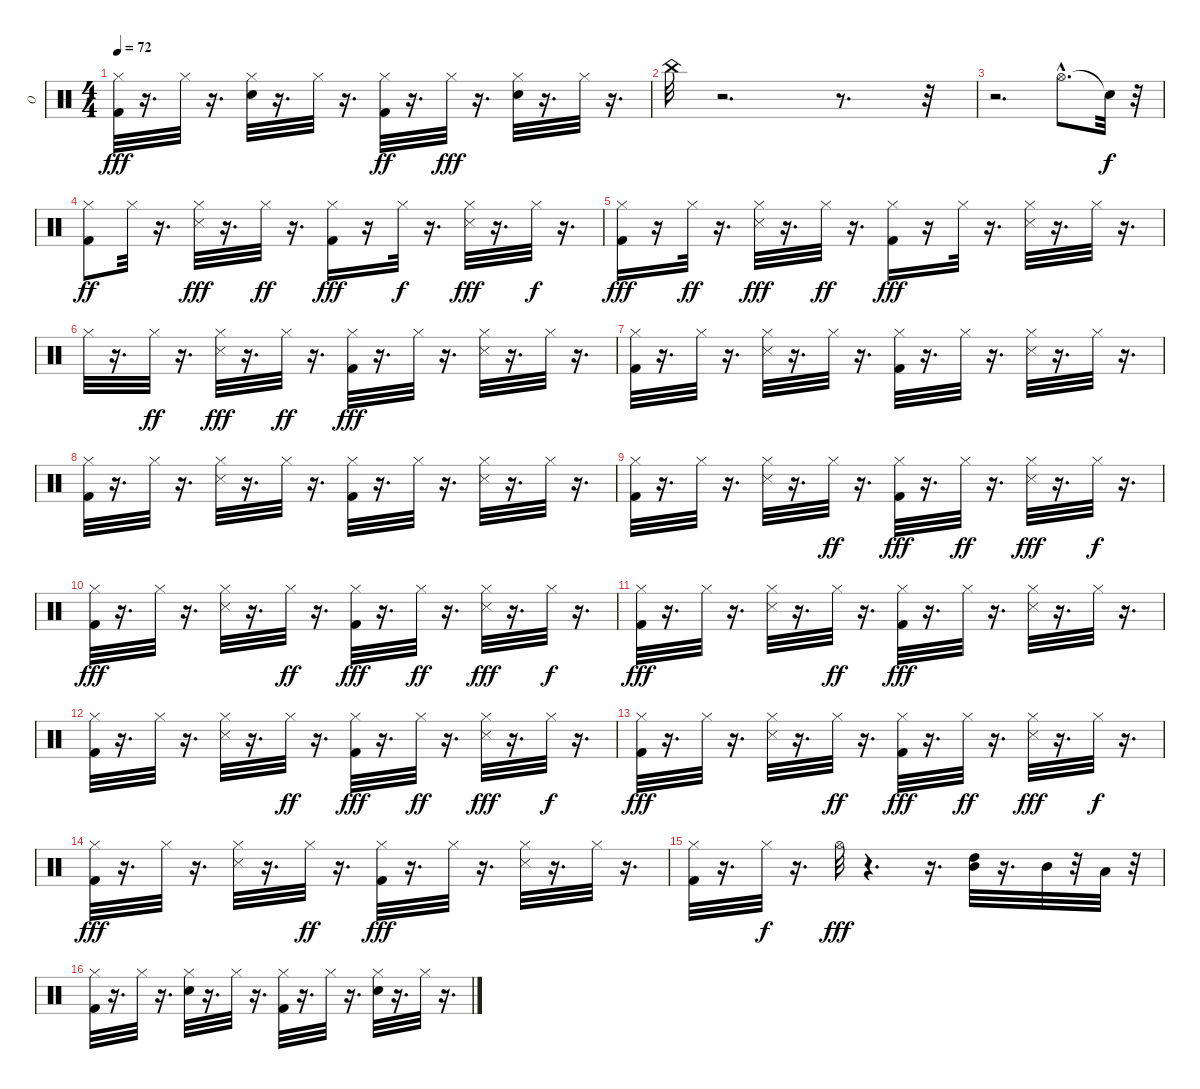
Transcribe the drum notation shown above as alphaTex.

\track ("O" "O") {instrument percussion}
\staff {score}
\articulation defaults
\ts (4 4)
\tempo 72
\clef neutral
\ks c
("Hi-Hat (closed)" "Kick (hit) 2").32{dy fff} r.16{d} "Hi-Hat (closed)".32 r.16{d} ("Hi-Hat (closed)" "Snare (hit) 2").32 r.16{d} "Hi-Hat (closed)".32 r.16{d} ("Hi-Hat (closed)" "Kick (hit) 2").32{dy ff} r.16{d} "Hi-Hat (closed)".32{dy fff} r.16{d} ("Hi-Hat (closed)" "Snare (hit) 2").32 r.16{d} "Hi-Hat (closed)".32 r.16{d} |
"China (hit)".32 r.2{d} r.8{d} r.32 |
r.2{d} "Hi-Hat (open)"{hac}.8{d} "Snare (hit)"{t}.32{dy f} r.32 |
("Kick (hit) 2" "Hi-Hat (closed)").8{dy ff} "Hi-Hat (closed)".32 r.16{d} ("Snare (side stick) 3" "Hi-Hat (closed)").32{dy fff} r.16{d} "Hi-Hat (closed)".32{dy ff} r.16{d} ("Kick (hit) 2" "Hi-Hat (closed)").16{dy fff} r.16 "Hi-Hat (closed)".32{dy f} r.16{d} ("Snare (side stick) 3" "Hi-Hat (closed)").32{dy fff} r.16{d} "Hi-Hat (closed)".32{dy f} r.16{d} |
("Kick (hit) 2" "Hi-Hat (closed)").16{dy fff} r.16 "Hi-Hat (closed)".32{dy ff} r.16{d} ("Snare (side stick) 3" "Hi-Hat (closed)").32{dy fff} r.16{d} "Hi-Hat (closed)".32{dy ff} r.16{d} ("Kick (hit) 2" "Hi-Hat (closed)").16{dy fff} r.16 "Hi-Hat (closed)".32 r.16{d} ("Snare (side stick) 3" "Hi-Hat (closed)").32 r.16{d} "Hi-Hat (closed)".32 r.16{d} |
"Hi-Hat (closed)".32 r.16{d} "Hi-Hat (closed)".32{dy ff} r.16{d} ("Snare (side stick) 3" "Hi-Hat (closed)").32{dy fff} r.16{d} "Hi-Hat (closed)".32{dy ff} r.16{d} ("Kick (hit) 2" "Hi-Hat (closed)").32{dy fff} r.16{d} "Hi-Hat (closed)".32 r.16{d} ("Hi-Hat (closed)" "Snare (side stick) 3").32 r.16{d} "Hi-Hat (closed)".32 r.16{d} |
("Kick (hit) 2" "Hi-Hat (closed)").32 r.16{d} "Hi-Hat (closed)".32 r.16{d} ("Snare (side stick) 3" "Hi-Hat (closed)").32 r.16{d} "Hi-Hat (closed)".32 r.16{d} ("Kick (hit) 2" "Hi-Hat (closed)").32 r.16{d} "Hi-Hat (closed)".32 r.16{d} ("Snare (side stick) 3" "Hi-Hat (closed)").32 r.16{d} "Hi-Hat (closed)".32 r.16{d} |
("Kick (hit) 2" "Hi-Hat (closed)").32 r.16{d} "Hi-Hat (closed)".32 r.16{d} ("Snare (side stick) 3" "Hi-Hat (closed)").32 r.16{d} "Hi-Hat (closed)".32 r.16{d} ("Kick (hit) 2" "Hi-Hat (closed)").32 r.16{d} "Hi-Hat (closed)".32 r.16{d} ("Hi-Hat (closed)" "Snare (side stick) 3").32 r.16{d} "Hi-Hat (closed)".32 r.16{d} |
("Kick (hit) 2" "Hi-Hat (closed)").32 r.16{d} "Hi-Hat (closed)".32 r.16{d} ("Snare (side stick) 3" "Hi-Hat (closed)").32 r.16{d} "Hi-Hat (closed)".32{dy ff} r.16{d} ("Kick (hit) 2" "Hi-Hat (closed)").32{dy fff} r.16{d} "Hi-Hat (closed)".32{dy ff} r.16{d} ("Snare (side stick) 3" "Hi-Hat (closed)").32{dy fff} r.16{d} "Hi-Hat (closed)".32{dy f} r.16{d} |
("Kick (hit) 2" "Hi-Hat (closed)").32{dy fff} r.16{d} "Hi-Hat (closed)".32 r.16{d} ("Snare (side stick) 3" "Hi-Hat (closed)").32 r.16{d} "Hi-Hat (closed)".32{dy ff} r.16{d} ("Kick (hit) 2" "Hi-Hat (closed)").32{dy fff} r.16{d} "Hi-Hat (closed)".32{dy ff} r.16{d} ("Snare (side stick) 3" "Hi-Hat (closed)").32{dy fff} r.16{d} "Hi-Hat (closed)".32{dy f} r.16{d} |
("Kick (hit) 2" "Hi-Hat (closed)").32{dy fff} r.16{d} "Hi-Hat (closed)".32 r.16{d} ("Snare (side stick) 3" "Hi-Hat (closed)").32 r.16{d} "Hi-Hat (closed)".32{dy ff} r.16{d} ("Kick (hit) 2" "Hi-Hat (closed)").32{dy fff} r.16{d} "Hi-Hat (closed)".32 r.16{d} ("Snare (side stick) 3" "Hi-Hat (closed)").32 r.16{d} "Hi-Hat (closed)".32 r.16{d} |
("Kick (hit) 2" "Hi-Hat (closed)").32 r.16{d} "Hi-Hat (closed)".32 r.16{d} ("Snare (side stick) 3" "Hi-Hat (closed)").32 r.16{d} "Hi-Hat (closed)".32{dy ff} r.16{d} ("Kick (hit) 2" "Hi-Hat (closed)").32{dy fff} r.16{d} "Hi-Hat (closed)".32{dy ff} r.16{d} ("Snare (side stick) 3" "Hi-Hat (closed)").32{dy fff} r.16{d} "Hi-Hat (closed)".32{dy f} r.16{d} |
("Kick (hit) 2" "Hi-Hat (closed)").32{dy fff} r.16{d} "Hi-Hat (closed)".32 r.16{d} ("Snare (side stick) 3" "Hi-Hat (closed)").32 r.16{d} "Hi-Hat (closed)".32{dy ff} r.16{d} ("Kick (hit) 2" "Hi-Hat (closed)").32{dy fff} r.16{d} "Hi-Hat (closed)".32{dy ff} r.16{d} ("Snare (side stick) 3" "Hi-Hat (closed)").32{dy fff} r.16{d} "Hi-Hat (closed)".32{dy f} r.16{d} |
("Kick (hit) 2" "Hi-Hat (closed)").32{dy fff} r.16{d} "Hi-Hat (closed)".32 r.16{d} ("Snare (side stick) 3" "Hi-Hat (closed)").32 r.16{d} "Hi-Hat (closed)".32{dy ff} r.16{d} ("Kick (hit) 2" "Hi-Hat (closed)").32{dy fff} r.16{d} "Hi-Hat (closed)".32 r.16{d} ("Snare (side stick) 3" "Hi-Hat (closed)").32 r.16{d} "Hi-Hat (closed)".32 r.16{d} |
("Kick (hit) 2" "Hi-Hat (closed)").32 r.16{d} "Hi-Hat (closed)".32{dy f} r.16{d} "Hi-Hat (open)".32{dy fff} r.4{d} r.16{d} ("High Tom (hit)" "Mid Tom (hit)").32 r.16{d} "Mid Tom (hit)".32 r.32 "Low Tom (hit)".32 r.32 |
("Kick (hit) 2" "Hi-Hat (closed)").32 r.16{d} "Hi-Hat (closed)".32 r.16{d} ("Hi-Hat (closed)" "Snare (hit) 2").32 r.16{d} "Hi-Hat (closed)".32 r.16{d} ("Hi-Hat (closed)" "Kick (hit) 2").32 r.16{d} "Hi-Hat (closed)".32 r.16{d} ("Hi-Hat (closed)" "Snare (hit) 2").32 r.16{d} "Hi-Hat (closed)".32 r.16{d}
